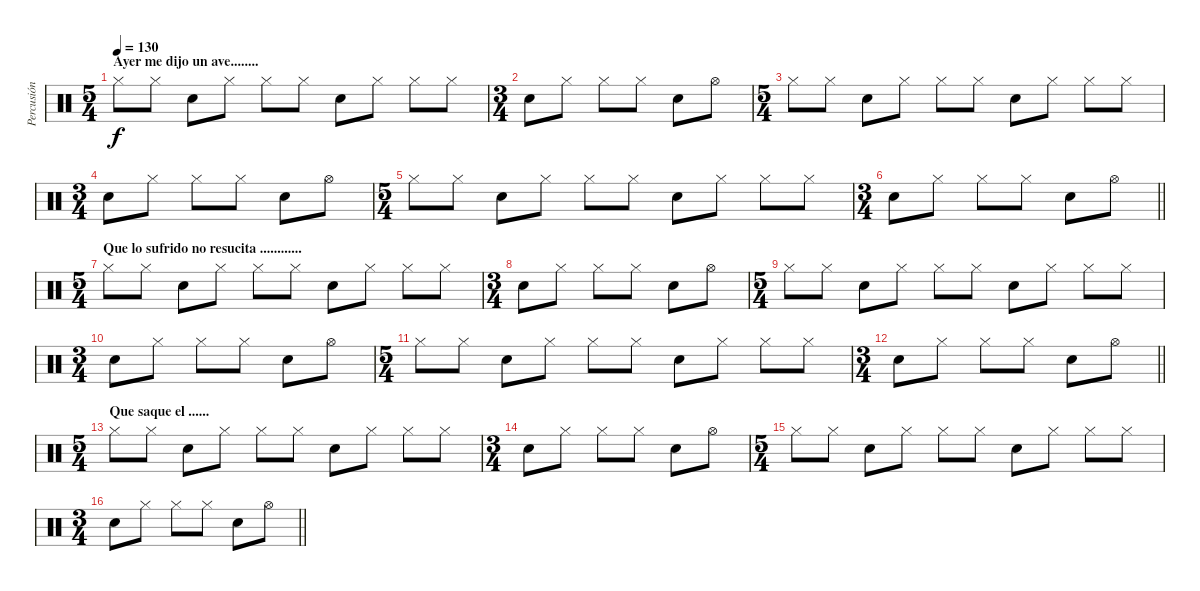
\track ("Percusión" "Percusión") {instrument percussion}
\staff {score}
\articulation defaults
\ts (5 4)
\section ("" "Ayer me dijo un ave........ ")
\tempo 130
\clef neutral
\ks c "Hi-Hat (closed)".8{dy f} "Hi-Hat (closed)".8 "Snare (hit) 2".8 "Hi-Hat (closed)".8 "Hi-Hat (closed)".8 "Hi-Hat (closed)".8 "Snare (hit) 2".8 "Hi-Hat (closed)".8 "Hi-Hat (closed)".8 "Hi-Hat (closed)".8
|
\ts (3 4)
"Snare (hit) 2".8 "Hi-Hat (closed)".8 "Hi-Hat (closed)".8 "Hi-Hat (closed)".8 "Snare (hit) 2".8 "Hi-Hat (open)".8 |
\ts (5 4)
"Hi-Hat (closed)".8 "Hi-Hat (closed)".8 "Snare (hit) 2".8 "Hi-Hat (closed)".8 "Hi-Hat (closed)".8 "Hi-Hat (closed)".8 "Snare (hit) 2".8 "Hi-Hat (closed)".8 "Hi-Hat (closed)".8 "Hi-Hat (closed)".8 |
\ts (3 4)
"Snare (hit) 2".8 "Hi-Hat (closed)".8 "Hi-Hat (closed)".8 "Hi-Hat (closed)".8 "Snare (hit) 2".8 "Hi-Hat (open)".8 |
\ts (5 4)
"Hi-Hat (closed)".8 "Hi-Hat (closed)".8 "Snare (hit) 2".8 "Hi-Hat (closed)".8 "Hi-Hat (closed)".8 "Hi-Hat (closed)".8 "Snare (hit) 2".8 "Hi-Hat (closed)".8 "Hi-Hat (closed)".8 "Hi-Hat (closed)".8 |
\ts (3 4)
\barLineRight lightlight "Snare (hit) 2".8 "Hi-Hat (closed)".8 "Hi-Hat (closed)".8 "Hi-Hat (closed)".8 "Snare (hit) 2".8 "Hi-Hat (open)".8
|
\ts (5 4)
\section ("" "Que lo sufrido no resucita ............")
"Hi-Hat (closed)".8 "Hi-Hat (closed)".8 "Snare (hit) 2".8 "Hi-Hat (closed)".8 "Hi-Hat (closed)".8 "Hi-Hat (closed)".8 "Snare (hit) 2".8 "Hi-Hat (closed)".8 "Hi-Hat (closed)".8 "Hi-Hat (closed)".8 |
\ts (3 4)
"Snare (hit) 2".8 "Hi-Hat (closed)".8 "Hi-Hat (closed)".8 "Hi-Hat (closed)".8 "Snare (hit) 2".8 "Hi-Hat (open)".8 |
\ts (5 4)
"Hi-Hat (closed)".8 "Hi-Hat (closed)".8 "Snare (hit) 2".8 "Hi-Hat (closed)".8 "Hi-Hat (closed)".8 "Hi-Hat (closed)".8 "Snare (hit) 2".8 "Hi-Hat (closed)".8 "Hi-Hat (closed)".8 "Hi-Hat (closed)".8 |
\ts (3 4)
"Snare (hit) 2".8 "Hi-Hat (closed)".8 "Hi-Hat (closed)".8 "Hi-Hat (closed)".8 "Snare (hit) 2".8 "Hi-Hat (open)".8 |
\ts (5 4)
"Hi-Hat (closed)".8 "Hi-Hat (closed)".8 "Snare (hit) 2".8 "Hi-Hat (closed)".8 "Hi-Hat (closed)".8 "Hi-Hat (closed)".8 "Snare (hit) 2".8 "Hi-Hat (closed)".8 "Hi-Hat (closed)".8 "Hi-Hat (closed)".8 |
\ts (3 4)
\barLineRight lightlight "Snare (hit) 2".8 "Hi-Hat (closed)".8 "Hi-Hat (closed)".8 "Hi-Hat (closed)".8 "Snare (hit) 2".8 "Hi-Hat (open)".8
|
\ts (5 4)
\section ("" "Que saque el ......")
"Hi-Hat (closed)".8 "Hi-Hat (closed)".8 "Snare (hit) 2".8 "Hi-Hat (closed)".8 "Hi-Hat (closed)".8 "Hi-Hat (closed)".8 "Snare (hit) 2".8 "Hi-Hat (closed)".8 "Hi-Hat (closed)".8 "Hi-Hat (closed)".8 |
\ts (3 4)
"Snare (hit) 2".8 "Hi-Hat (closed)".8 "Hi-Hat (closed)".8 "Hi-Hat (closed)".8 "Snare (hit) 2".8 "Hi-Hat (open)".8 |
\ts (5 4)
"Hi-Hat (closed)".8 "Hi-Hat (closed)".8 "Snare (hit) 2".8 "Hi-Hat (closed)".8 "Hi-Hat (closed)".8 "Hi-Hat (closed)".8 "Snare (hit) 2".8 "Hi-Hat (closed)".8 "Hi-Hat (closed)".8 "Hi-Hat (closed)".8 |
\ts (3 4)
\barLineRight lightlight "Snare (hit) 2".8 "Hi-Hat (closed)".8 "Hi-Hat (closed)".8 "Hi-Hat (closed)".8 "Snare (hit) 2".8 "Hi-Hat (open)".8
